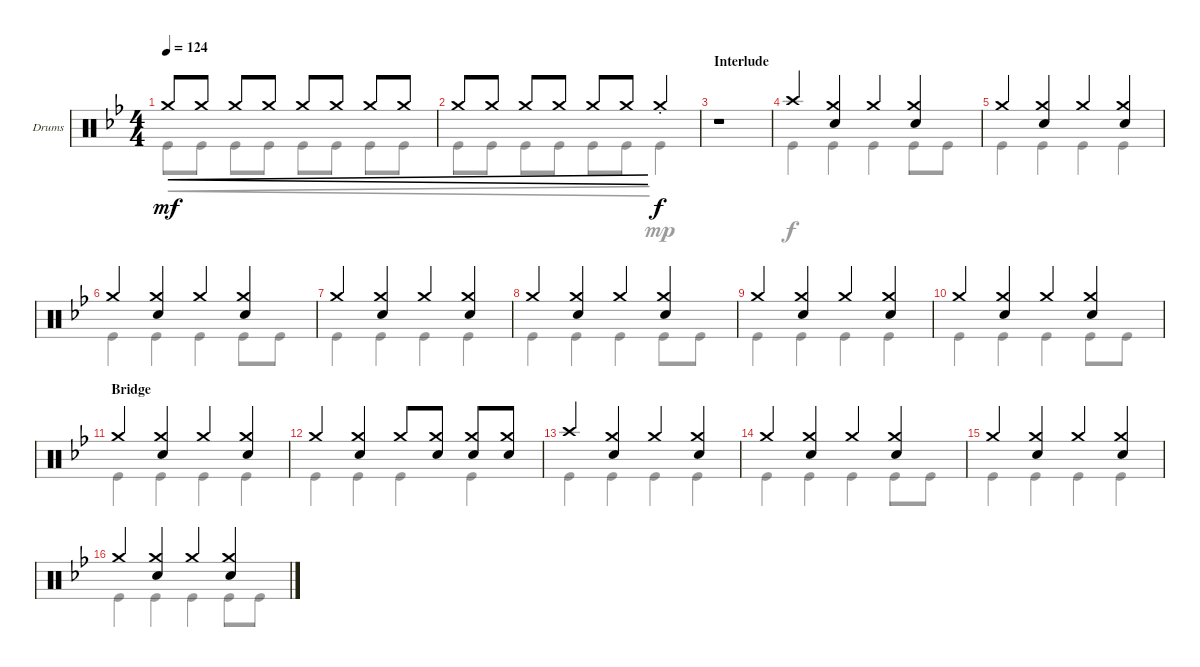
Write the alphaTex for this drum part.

\defaultSystemsLayout 4
\bracketExtendMode groupsimilarinstruments
\firstSystemTrackNameOrientation horizontal
\otherSystemsTrackNameOrientation horizontal
\track ("Drums" "Drums") {instrument percussion}
\staff {score}
\articulation defaults
\voice
\ts (4 4)
\tempo 124
\clef neutral
\ks gminor "Crash medium (hit)".8{cre dy mf} "Crash medium (hit)".8{cre} "Crash medium (hit)".8{cre} "Crash medium (hit)".8{cre} "Crash medium (hit)".8{cre} "Crash medium (hit)".8{cre} "Crash medium (hit)".8{cre} "Crash medium (hit)".8{cre}
|
"Crash medium (hit)".8{cre} "Crash medium (hit)".8{cre} "Crash medium (hit)".8{cre} "Crash medium (hit)".8{cre} "Crash medium (hit)".8{cre} "Crash medium (hit)".8{cre} "Crash medium (hit)"{st}.4{dy f} |
\section ("" "Interlude")
r.1 |
"Crash high (hit)".4 ("Crash medium (hit)" "Snare (hit) 2").4 "Crash medium (hit)".4 ("Crash medium (hit)" "Snare (hit) 2").4 |
"Crash medium (hit)".4 ("Crash medium (hit)" "Snare (hit) 2").4 "Crash medium (hit)".4 ("Crash medium (hit)" "Snare (hit) 2").4 |
"Crash medium (hit)".4 ("Crash medium (hit)" "Snare (hit) 2").4 "Crash medium (hit)".4 ("Crash medium (hit)" "Snare (hit) 2").4 |
"Crash medium (hit)".4 ("Crash medium (hit)" "Snare (hit) 2").4 "Crash medium (hit)".4 ("Crash medium (hit)" "Snare (hit) 2").4 |
"Crash medium (hit)".4 ("Crash medium (hit)" "Snare (hit) 2").4 "Crash medium (hit)".4 ("Crash medium (hit)" "Snare (hit) 2").4 |
"Crash medium (hit)".4 ("Crash medium (hit)" "Snare (hit) 2").4 "Crash medium (hit)".4 ("Crash medium (hit)" "Snare (hit) 2").4 |
"Crash medium (hit)".4 ("Crash medium (hit)" "Snare (hit) 2").4 "Crash medium (hit)".4 ("Crash medium (hit)" "Snare (hit) 2").4 |
\section ("" "Bridge")
"Crash medium (hit)".4 ("Crash medium (hit)" "Snare (hit) 2").4 "Crash medium (hit)".4 ("Crash medium (hit)" "Snare (hit) 2").4 |
"Crash medium (hit)".4 ("Crash medium (hit)" "Snare (hit) 2").4 "Crash medium (hit)".8 ("Crash medium (hit)" "Snare (hit) 2").8 ("Crash medium (hit)" "Snare (hit) 2").8 ("Crash medium (hit)" "Snare (hit) 2").8 |
"Crash high (hit)".4 ("Crash medium (hit)" "Snare (hit) 2").4 "Crash medium (hit)".4 ("Crash medium (hit)" "Snare (hit) 2").4 |
"Crash medium (hit)".4 ("Crash medium (hit)" "Snare (hit) 2").4 "Crash medium (hit)".4 ("Crash medium (hit)" "Snare (hit) 2").4 |
"Crash medium (hit)".4 ("Crash medium (hit)" "Snare (hit) 2").4 "Crash medium (hit)".4 ("Crash medium (hit)" "Snare (hit) 2").4 |
"Crash medium (hit)".4 ("Crash medium (hit)" "Snare (hit) 2").4 "Crash medium (hit)".4 ("Crash medium (hit)" "Snare (hit) 2").4
\voice
\clef neutral
\ottava regular
\simile none
\ks gminor "Kick (hit)".8{cre dy mf} "Kick (hit)".8{cre} "Kick (hit)".8{cre} "Kick (hit)".8{cre} "Kick (hit)".8{cre} "Kick (hit)".8{cre} "Kick (hit)".8{cre} "Kick (hit)".8{cre}
|
"Kick (hit)".8{cre} "Kick (hit)".8{cre} "Kick (hit)".8{cre} "Kick (hit)".8{cre} "Kick (hit)".8{cre} "Kick (hit)".8{cre} "Kick (hit)".4{dy mp} |
r.1 |
"Kick (hit)".4{dy f} "Kick (hit)".4 "Kick (hit)".4 "Kick (hit)".8 "Kick (hit)".8 |
"Kick (hit)".4 "Kick (hit)".4 "Kick (hit)".4 "Kick (hit)".4 |
"Kick (hit)".4 "Kick (hit)".4 "Kick (hit)".4 "Kick (hit)".8 "Kick (hit)".8 |
"Kick (hit)".4 "Kick (hit)".4 "Kick (hit)".4 "Kick (hit)".4 |
"Kick (hit)".4 "Kick (hit)".4 "Kick (hit)".4 "Kick (hit)".8 "Kick (hit)".8 |
"Kick (hit)".4 "Kick (hit)".4 "Kick (hit)".4 "Kick (hit)".4 |
"Kick (hit)".4 "Kick (hit)".4 "Kick (hit)".4 "Kick (hit)".8 "Kick (hit)".8 |
"Kick (hit)".4 "Kick (hit)".4 "Kick (hit)".4 "Kick (hit)".4 |
"Kick (hit)".4 "Kick (hit)".4 "Kick (hit)".4 "Kick (hit)".4 |
"Kick (hit)".4 "Kick (hit)".4 "Kick (hit)".4 "Kick (hit)".4 |
"Kick (hit)".4 "Kick (hit)".4 "Kick (hit)".4 "Kick (hit)".8 "Kick (hit)".8 |
"Kick (hit)".4 "Kick (hit)".4 "Kick (hit)".4 "Kick (hit)".4 |
"Kick (hit)".4 "Kick (hit)".4 "Kick (hit)".4 "Kick (hit)".8 "Kick (hit)".8
